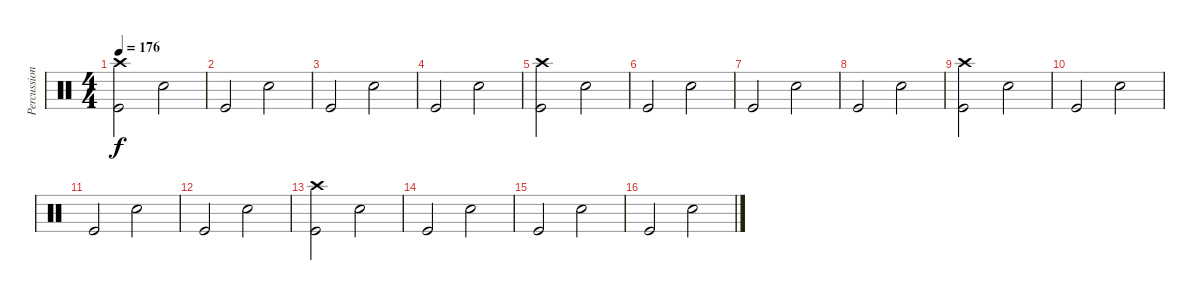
\track ("Percussions" "Percussion") {instrument percussion}
\staff {score}
\articulation defaults
\ts (4 4)
\tempo 176
\clef neutral
\ks c
("Crash high (hit)" "Kick (hit)").2{dy f} "Snare (hit) 2".2 |
"Kick (hit)".2 "Snare (hit) 2".2 |
"Kick (hit)".2 "Snare (hit) 2".2 |
"Kick (hit)".2 "Snare (hit) 2".2 |
("Crash high (hit)" "Kick (hit)").2 "Snare (hit) 2".2 |
"Kick (hit)".2 "Snare (hit) 2".2 |
"Kick (hit)".2 "Snare (hit) 2".2 |
"Kick (hit)".2 "Snare (hit) 2".2 |
("Crash high (hit)" "Kick (hit)").2 "Snare (hit) 2".2 |
"Kick (hit)".2 "Snare (hit) 2".2 |
"Kick (hit)".2 "Snare (hit) 2".2 |
"Kick (hit)".2 "Snare (hit) 2".2 |
("Crash high (hit)" "Kick (hit)").2 "Snare (hit) 2".2 |
"Kick (hit)".2 "Snare (hit) 2".2 |
"Kick (hit)".2 "Snare (hit) 2".2 |
"Kick (hit)".2 "Snare (hit) 2".2
